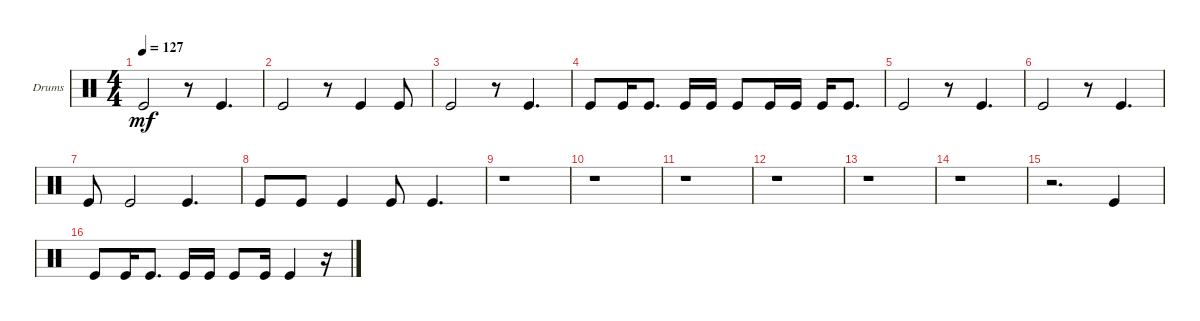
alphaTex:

\bracketExtendMode groupsimilarinstruments
\firstSystemTrackNameOrientation horizontal
\otherSystemsTrackNameOrientation horizontal
\track ("Drum Bass" "Drums") {instrument percussion}
\staff {score}
\articulation defaults
\ts (4 4)
\tempo 127
\clef neutral
\ks c "Kick (hit)".2{dy mf}
r.8 "Kick (hit)".4{d} |
"Kick (hit)".2 r.8 "Kick (hit)".4 "Kick (hit)".8 |
"Kick (hit)".2 r.8 "Kick (hit)".4{d} |
"Kick (hit)".8 "Kick (hit)".16 "Kick (hit)".8{d} "Kick (hit)".16 "Kick (hit)".16 "Kick (hit)".8 "Kick (hit)".16 "Kick (hit)".16 "Kick (hit)".16 "Kick (hit)".8{d} |
"Kick (hit)".2 r.8 "Kick (hit)".4{d} |
"Kick (hit)".2 r.8 "Kick (hit)".4{d} |
"Kick (hit)".8 "Kick (hit)".2 "Kick (hit)".4{d} |
"Kick (hit)".8 "Kick (hit)".8 "Kick (hit)".4 "Kick (hit)".8 "Kick (hit)".4{d} |
r.1 |
r.1 |
r.1 |
r.1 |
r.1 |
r.1 |
r.2{d} "Kick (hit)".4 |
"Kick (hit)".8 "Kick (hit)".16 "Kick (hit)".8{d} "Kick (hit)".16 "Kick (hit)".16 "Kick (hit)".8 "Kick (hit)".16 "Kick (hit)".4 r.16
